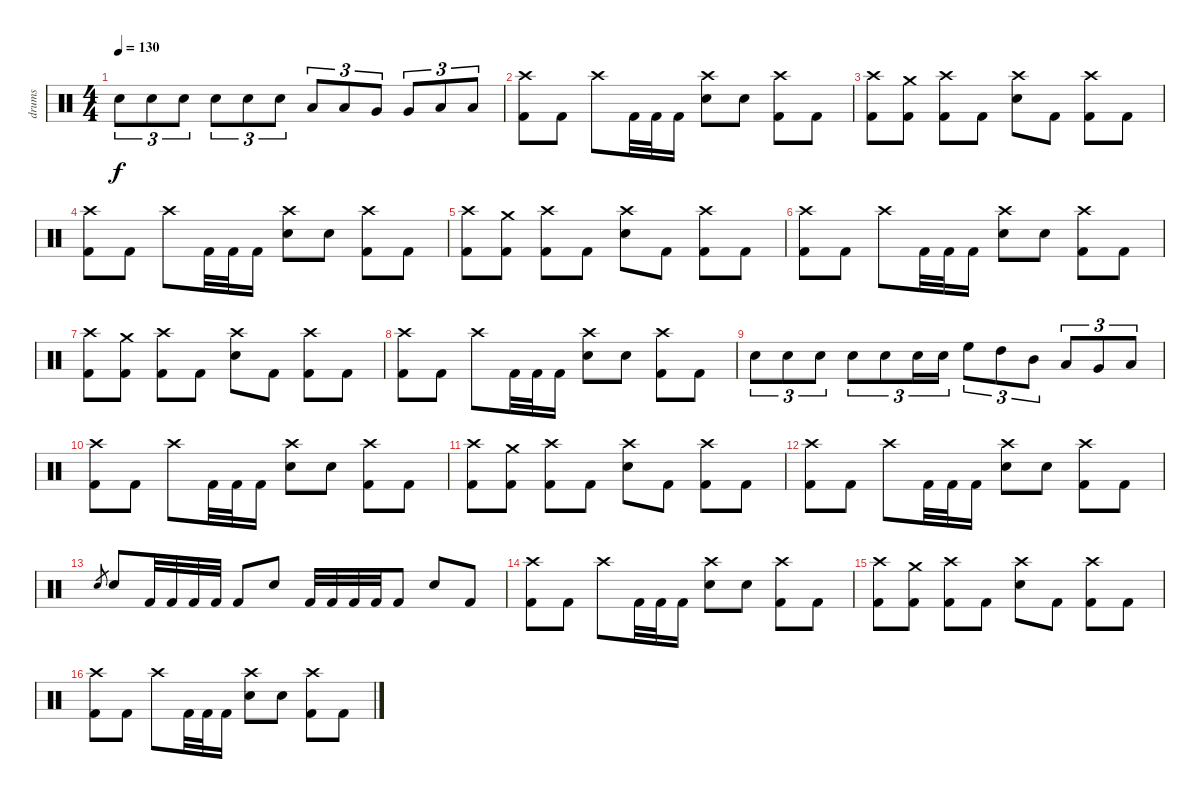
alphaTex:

\track ("drums" "drums") {instrument percussion}
\staff {score}
\articulation defaults
\ts (4 4)
\tempo 130
\clef neutral
\ks c "Snare (hit) 2".8{tu (3 2) dy f} "Snare (hit) 2".8{tu (3 2)} "Snare (hit) 2".8{tu (3 2)} "Snare (hit) 2".8{tu (3 2)} "Snare (hit) 2".8{tu (3 2)} "Snare (hit) 2".8{tu (3 2)} "Low Tom (hit)".8{tu (3 2)} "Low Tom (hit)".8{tu (3 2)} "Very Low Tom (hit)".8{tu (3 2)} "Very Low Tom (hit)".8{tu (3 2)} "Low Floor Tom (hit)".8{tu (3 2)} "Low Floor Tom (hit)".8{tu (3 2)}
|
("Crash high (hit)" "Kick (hit) 2").8 "Kick (hit) 2".8 "Crash high (hit)".8 "Kick (hit) 2".32 "Kick (hit) 2".32 "Kick (hit) 2".16 ("Crash high (hit)" "Snare (hit) 2").8 "Snare (hit) 2".8 ("Crash high (hit)" "Kick (hit) 2").8 "Kick (hit) 2".8 |
("Crash high (hit)" "Kick (hit) 2").8 ("Crash medium (hit)" "Kick (hit) 2").8 ("Crash high (hit)" "Kick (hit) 2").8 "Kick (hit) 2".8 ("Crash high (hit)" "Snare (hit) 2").8 "Kick (hit) 2".8 ("Crash high (hit)" "Kick (hit) 2").8 "Kick (hit) 2".8 |
("Crash high (hit)" "Kick (hit) 2").8 "Kick (hit) 2".8 "Crash high (hit)".8 "Kick (hit) 2".32 "Kick (hit) 2".32 "Kick (hit) 2".16 ("Crash high (hit)" "Snare (hit) 2").8 "Snare (hit) 2".8 ("Crash high (hit)" "Kick (hit) 2").8 "Kick (hit) 2".8 |
("Crash high (hit)" "Kick (hit) 2").8 ("Crash medium (hit)" "Kick (hit) 2").8 ("Crash high (hit)" "Kick (hit) 2").8 "Kick (hit) 2".8 ("Crash high (hit)" "Snare (hit) 2").8 "Kick (hit) 2".8 ("Crash high (hit)" "Kick (hit) 2").8 "Kick (hit) 2".8 |
("Crash high (hit)" "Kick (hit) 2").8 "Kick (hit) 2".8 "Crash high (hit)".8 "Kick (hit) 2".32 "Kick (hit) 2".32 "Kick (hit) 2".16 ("Crash high (hit)" "Snare (hit) 2").8 "Snare (hit) 2".8 ("Crash high (hit)" "Kick (hit) 2").8 "Kick (hit) 2".8 |
("Crash high (hit)" "Kick (hit) 2").8 ("Crash medium (hit)" "Kick (hit) 2").8 ("Crash high (hit)" "Kick (hit) 2").8 "Kick (hit) 2".8 ("Crash high (hit)" "Snare (hit) 2").8 "Kick (hit) 2".8 ("Crash high (hit)" "Kick (hit) 2").8 "Kick (hit) 2".8 |
("Crash high (hit)" "Kick (hit) 2").8 "Kick (hit) 2".8 "Crash high (hit)".8 "Kick (hit) 2".32 "Kick (hit) 2".32 "Kick (hit) 2".16 ("Crash high (hit)" "Snare (hit) 2").8 "Snare (hit) 2".8 ("Crash high (hit)" "Kick (hit) 2").8 "Kick (hit) 2".8 |
"Snare (hit) 2".8{tu (3 2)} "Snare (hit) 2".8{tu (3 2)} "Snare (hit) 2".8{tu (3 2)} "Snare (hit) 2".8{tu (3 2)} "Snare (hit) 2".8{tu (3 2)} "Snare (hit) 2".16{tu (3 2)} "Snare (hit) 2".16{tu (3 2)} "High Floor Tom (hit)".8{tu (3 2)} "High Tom (hit)".8{tu (3 2)} "Mid Tom (hit)".8{tu (3 2)} "Low Tom (hit)".8{tu (3 2)} "Very Low Tom (hit)".8{tu (3 2)} "Low Floor Tom (hit)".8{tu (3 2)} |
("Crash high (hit)" "Kick (hit) 2").8 "Kick (hit) 2".8 "Crash high (hit)".8 "Kick (hit) 2".32 "Kick (hit) 2".32 "Kick (hit) 2".16 ("Crash high (hit)" "Snare (hit) 2").8 "Snare (hit) 2".8 ("Crash high (hit)" "Kick (hit) 2").8 "Kick (hit) 2".8 |
("Crash high (hit)" "Kick (hit) 2").8 ("Crash medium (hit)" "Kick (hit) 2").8 ("Crash high (hit)" "Kick (hit) 2").8 "Kick (hit) 2".8 ("Crash high (hit)" "Snare (hit) 2").8 "Kick (hit) 2".8 ("Crash high (hit)" "Kick (hit) 2").8 "Kick (hit) 2".8 |
("Crash high (hit)" "Kick (hit) 2").8 "Kick (hit) 2".8 "Crash high (hit)".8 "Kick (hit) 2".32 "Kick (hit) 2".32 "Kick (hit) 2".16 ("Crash high (hit)" "Snare (hit) 2").8 "Snare (hit) 2".8 ("Crash high (hit)" "Kick (hit) 2").8 "Kick (hit) 2".8 |
"Snare (hit) 2".8{gr} "Snare (hit) 2".8 "Kick (hit) 2".32 "Kick (hit) 2".32 "Kick (hit) 2".32 "Kick (hit) 2".32 "Kick (hit) 2".8 "Snare (hit) 2".8 "Kick (hit) 2".32 "Kick (hit) 2".32 "Kick (hit) 2".32 "Kick (hit) 2".32 "Kick (hit) 2".8 "Snare (hit) 2".8 "Kick (hit) 2".8 |
("Crash high (hit)" "Kick (hit) 2").8 "Kick (hit) 2".8 "Crash high (hit)".8 "Kick (hit) 2".32 "Kick (hit) 2".32 "Kick (hit) 2".16 ("Crash high (hit)" "Snare (hit) 2").8 "Snare (hit) 2".8 ("Crash high (hit)" "Kick (hit) 2").8 "Kick (hit) 2".8 |
("Crash high (hit)" "Kick (hit) 2").8 ("Crash medium (hit)" "Kick (hit) 2").8 ("Crash high (hit)" "Kick (hit) 2").8 "Kick (hit) 2".8 ("Crash high (hit)" "Snare (hit) 2").8 "Kick (hit) 2".8 ("Crash high (hit)" "Kick (hit) 2").8 "Kick (hit) 2".8 |
("Crash high (hit)" "Kick (hit) 2").8 "Kick (hit) 2".8 "Crash high (hit)".8 "Kick (hit) 2".32 "Kick (hit) 2".32 "Kick (hit) 2".16 ("Crash high (hit)" "Snare (hit) 2").8 "Snare (hit) 2".8 ("Crash high (hit)" "Kick (hit) 2").8 "Kick (hit) 2".8
